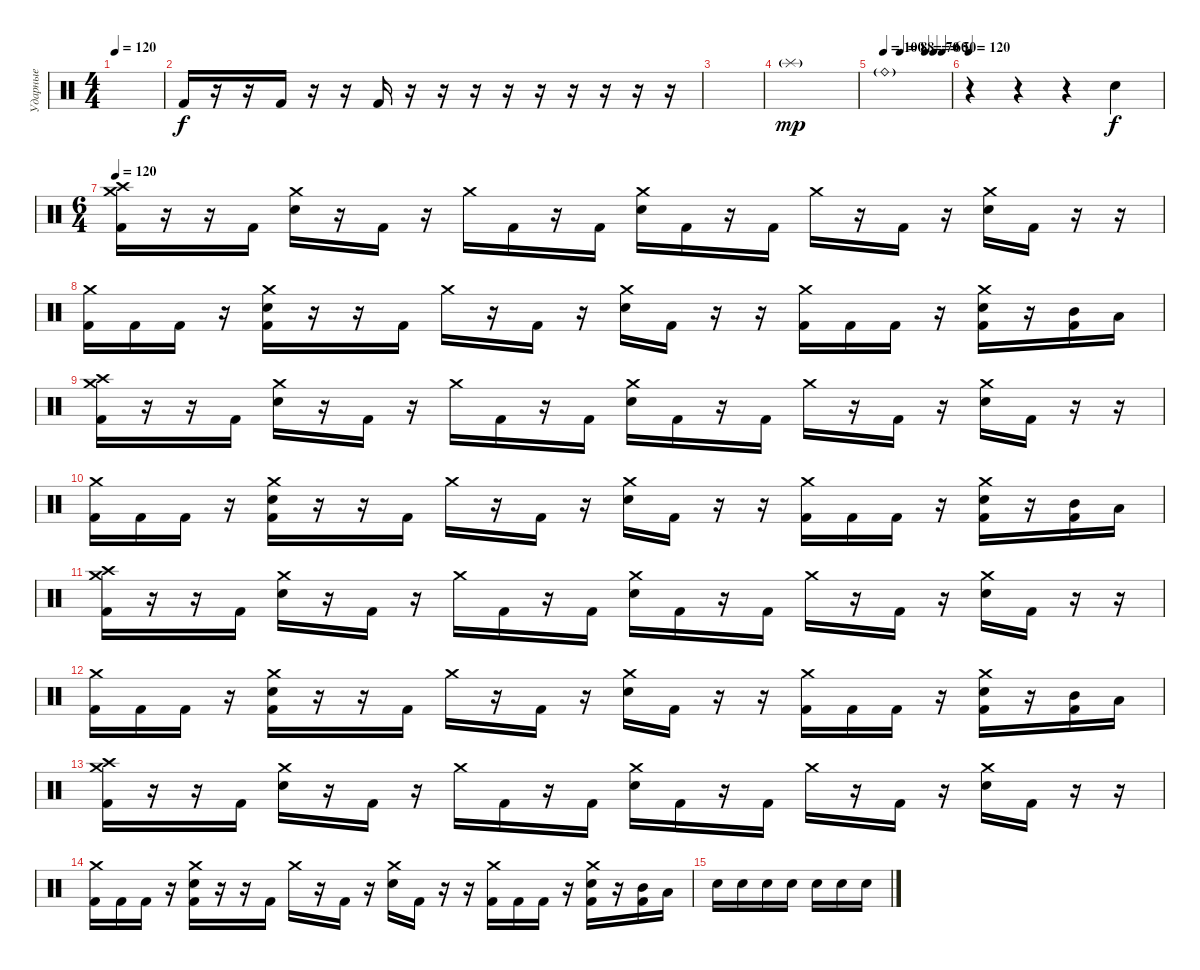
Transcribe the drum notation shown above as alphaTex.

\track ("Ударные" "Ударные") {instrument percussion}
\staff {score}
\articulation defaults
\ts (4 4)
\tempo 120
\clef neutral
\ks c
|
"Kick (hit) 2".16 r.16 r.16 "Kick (hit) 2".16 r.16 r.16 "Kick (hit) 2".16 r.16 r.16 r.16 r.16 r.16 r.16 r.16 r.16 r.16 |
|
"Splash (hit)"{g}.1{dy mp} |
\tempo 100
\tempo (88 0.25)
\tempo (70 0.625)
\tempo (60 0.75)
\tempo (50 0.875)
"Ride (bell)"{g}.1 |
\tempo 120
r.4 r.4 r.4 "Electric Snare (hit)".4{dy f} |
\ts (6 4)
\tempo 120
("Crash medium (hit)" "Crash high (hit)" "Kick (hit) 2").16 r.16 r.16 "Kick (hit) 2".16 ("Crash medium (hit)" "Electric Snare (hit)").16 r.16 "Kick (hit) 2".16 r.16 "Crash medium (hit)".16 "Kick (hit) 2".16 r.16 "Kick (hit) 2".16 ("Crash medium (hit)" "Electric Snare (hit)").16 "Kick (hit) 2".16 r.16 "Kick (hit) 2".16 "Crash medium (hit)".16 r.16 "Kick (hit) 2".16 r.16 ("Crash medium (hit)" "Electric Snare (hit)").16 "Kick (hit) 2".16 r.16 r.16 |
("Crash medium (hit)" "Kick (hit) 2").16 "Kick (hit) 2".16 "Kick (hit) 2".16 r.16 ("Crash medium (hit)" "Electric Snare (hit)" "Kick (hit) 2").16 r.16 r.16 "Kick (hit) 2".16 "Crash medium (hit)".16 r.16 "Kick (hit) 2".16 r.16 ("Crash medium (hit)" "Electric Snare (hit)").16 "Kick (hit) 2".16 r.16 r.16 ("Crash medium (hit)" "Kick (hit) 2").16 "Kick (hit) 2".16 "Kick (hit) 2".16 r.16 ("Crash medium (hit)" "Electric Snare (hit)" "Kick (hit) 2").16 r.16 ("Mid Tom (hit)" "Kick (hit) 2").16 "Low Tom (hit)".16 |
("Crash medium (hit)" "Crash high (hit)" "Kick (hit) 2").16 r.16 r.16 "Kick (hit) 2".16 ("Crash medium (hit)" "Electric Snare (hit)").16 r.16 "Kick (hit) 2".16 r.16 "Crash medium (hit)".16 "Kick (hit) 2".16 r.16 "Kick (hit) 2".16 ("Crash medium (hit)" "Electric Snare (hit)").16 "Kick (hit) 2".16 r.16 "Kick (hit) 2".16 "Crash medium (hit)".16 r.16 "Kick (hit) 2".16 r.16 ("Crash medium (hit)" "Electric Snare (hit)").16 "Kick (hit) 2".16 r.16 r.16 |
("Crash medium (hit)" "Kick (hit) 2").16 "Kick (hit) 2".16 "Kick (hit) 2".16 r.16 ("Crash medium (hit)" "Electric Snare (hit)" "Kick (hit) 2").16 r.16 r.16 "Kick (hit) 2".16 "Crash medium (hit)".16 r.16 "Kick (hit) 2".16 r.16 ("Crash medium (hit)" "Electric Snare (hit)").16 "Kick (hit) 2".16 r.16 r.16 ("Crash medium (hit)" "Kick (hit) 2").16 "Kick (hit) 2".16 "Kick (hit) 2".16 r.16 ("Crash medium (hit)" "Electric Snare (hit)" "Kick (hit) 2").16 r.16 ("Mid Tom (hit)" "Kick (hit) 2").16 "Low Tom (hit)".16 |
("Crash medium (hit)" "Crash high (hit)" "Kick (hit) 2").16 r.16 r.16 "Kick (hit) 2".16 ("Crash medium (hit)" "Electric Snare (hit)").16 r.16 "Kick (hit) 2".16 r.16 "Crash medium (hit)".16 "Kick (hit) 2".16 r.16 "Kick (hit) 2".16 ("Crash medium (hit)" "Electric Snare (hit)").16 "Kick (hit) 2".16 r.16 "Kick (hit) 2".16 "Crash medium (hit)".16 r.16 "Kick (hit) 2".16 r.16 ("Crash medium (hit)" "Electric Snare (hit)").16 "Kick (hit) 2".16 r.16 r.16 |
("Crash medium (hit)" "Kick (hit) 2").16 "Kick (hit) 2".16 "Kick (hit) 2".16 r.16 ("Crash medium (hit)" "Electric Snare (hit)" "Kick (hit) 2").16 r.16 r.16 "Kick (hit) 2".16 "Crash medium (hit)".16 r.16 "Kick (hit) 2".16 r.16 ("Crash medium (hit)" "Electric Snare (hit)").16 "Kick (hit) 2".16 r.16 r.16 ("Crash medium (hit)" "Kick (hit) 2").16 "Kick (hit) 2".16 "Kick (hit) 2".16 r.16 ("Crash medium (hit)" "Electric Snare (hit)" "Kick (hit) 2").16 r.16 ("Mid Tom (hit)" "Kick (hit) 2").16 "Low Tom (hit)".16 |
("Crash medium (hit)" "Crash high (hit)" "Kick (hit) 2").16 r.16 r.16 "Kick (hit) 2".16 ("Crash medium (hit)" "Electric Snare (hit)").16 r.16 "Kick (hit) 2".16 r.16 "Crash medium (hit)".16 "Kick (hit) 2".16 r.16 "Kick (hit) 2".16 ("Crash medium (hit)" "Electric Snare (hit)").16 "Kick (hit) 2".16 r.16 "Kick (hit) 2".16 "Crash medium (hit)".16 r.16 "Kick (hit) 2".16 r.16 ("Crash medium (hit)" "Electric Snare (hit)").16 "Kick (hit) 2".16 r.16 r.16 |
("Crash medium (hit)" "Kick (hit) 2").16 "Kick (hit) 2".16 "Kick (hit) 2".16 r.16 ("Crash medium (hit)" "Electric Snare (hit)" "Kick (hit) 2").16 r.16 r.16 "Kick (hit) 2".16 "Crash medium (hit)".16 r.16 "Kick (hit) 2".16 r.16 ("Crash medium (hit)" "Electric Snare (hit)").16 "Kick (hit) 2".16 r.16 r.16 ("Crash medium (hit)" "Kick (hit) 2").16 "Kick (hit) 2".16 "Kick (hit) 2".16 r.16 ("Crash medium (hit)" "Electric Snare (hit)" "Kick (hit) 2").16 r.16 ("Mid Tom (hit)" "Kick (hit) 2").16 "Low Tom (hit)".16 |
"Electric Snare (hit)".16 "Electric Snare (hit)".16 "Electric Snare (hit)".16 "Electric Snare (hit)".16 "Electric Snare (hit)".16 "Electric Snare (hit)".16 "Electric Snare (hit)".16
